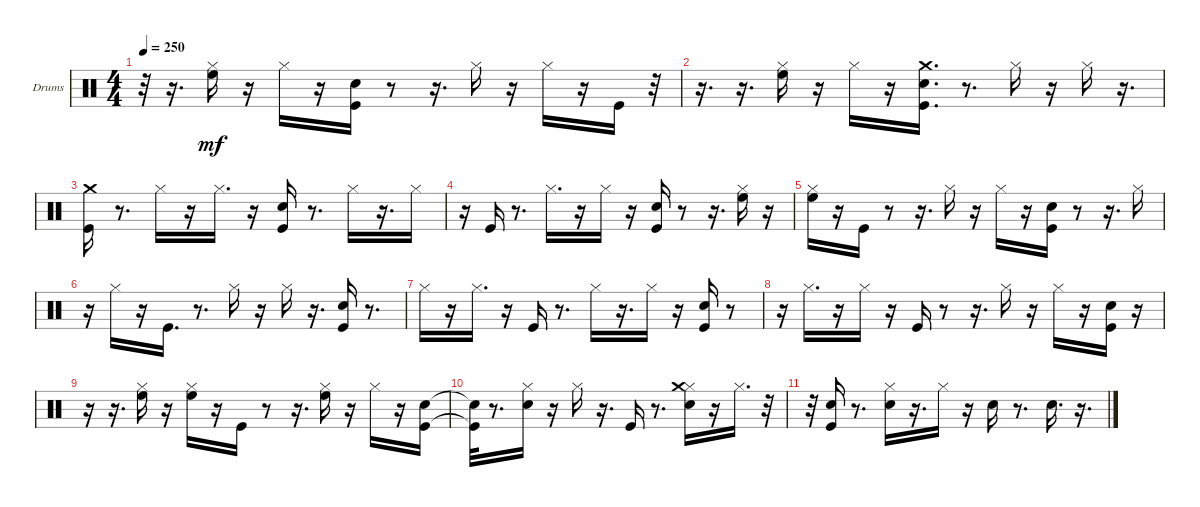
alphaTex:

\bracketExtendMode groupsimilarinstruments
\firstSystemTrackNameOrientation horizontal
\otherSystemsTrackNameOrientation horizontal
\track ("Drums" "Drums") {instrument percussion}
\staff {score}
\articulation defaults
\ts (4 4)
\tempo 250
\clef neutral
\ks c
r.32{dy mf} r.16{d} ("High Floor Tom (hit)" "Hi-Hat (closed)").16 r.16 "Hi-Hat (closed)".16 r.16 ("Kick (hit)" "Snare (hit) 2").16 r.8 r.16{d} "Hi-Hat (closed)".16 r.16 "Hi-Hat (closed)".16 r.16 "Kick (hit)".16 r.32 |
r.16{d} r.16{d} ("High Floor Tom (hit)" "Hi-Hat (closed)").16 r.16 "Hi-Hat (closed)".16 r.16 ("Kick (hit)" "Crash medium (hit)" "Snare (hit) 2").16{d} r.8{d} "Hi-Hat (closed)".16 r.16 "Hi-Hat (closed)".16 r.16{d} |
("Kick (hit)" "Crash medium (hit)").16 r.8{d} "Hi-Hat (closed)".16 r.16 "Hi-Hat (closed)".16{d} r.16 ("Kick (hit)" "Snare (hit) 2").16 r.8{d} "Hi-Hat (closed)".16 r.16{d} "Hi-Hat (closed)".16 |
r.16 "Kick (hit)".16 r.8{d} "Hi-Hat (closed)".16{d} r.16 "Hi-Hat (closed)".16 r.16 ("Kick (hit)" "Snare (hit) 2").16 r.8 r.16{d} ("High Floor Tom (hit)" "Hi-Hat (closed)").16 r.16 |
("High Floor Tom (hit)" "Hi-Hat (closed)").16 r.16 "Kick (hit)".16 r.8 r.16{d} "Hi-Hat (closed)".16 r.16 "Hi-Hat (closed)".16 r.16 ("Kick (hit)" "Snare (hit) 2").16 r.8 r.16{d} "Hi-Hat (closed)".16 |
r.16 "Hi-Hat (closed)".16 r.16 "Kick (hit)".16{d} r.8{d} "Hi-Hat (closed)".16 r.16 "Hi-Hat (closed)".16 r.16{d} ("Kick (hit)" "Snare (hit) 2").16 r.8{d} |
"Hi-Hat (closed)".16 r.16 "Hi-Hat (closed)".16{d} r.16 "Kick (hit)".16 r.8{d} "Hi-Hat (closed)".16 r.16{d} "Hi-Hat (closed)".16 r.16 ("Kick (hit)" "Snare (hit) 2").16 r.8 |
r.16 "Hi-Hat (closed)".16{d} r.16 "Hi-Hat (closed)".16 r.16 "Kick (hit)".16 r.8 r.16{d} "Hi-Hat (closed)".16 r.16 "Hi-Hat (closed)".16 r.16 ("Kick (hit)" "Snare (hit) 2").16 r.16 |
r.16 r.16{d} ("High Floor Tom (hit)" "Hi-Hat (closed)").16 r.16 ("High Floor Tom (hit)" "Hi-Hat (closed)").16 r.16 "Kick (hit)".16 r.8 r.16{d} ("High Floor Tom (hit)" "Hi-Hat (closed)").16 r.16 "Hi-Hat (closed)".16 r.16 ("Kick (hit)" "Snare (hit) 2").16 |
("Kick (hit)"{t} "Snare (hit) 2"{t}).32 r.8{d} ("Hi-Hat (closed)" "Snare (hit) 2").16 r.16 "Hi-Hat (closed)".16 r.16{d} "Kick (hit)".16 r.8{d} ("Hi-Hat (closed)" "Snare (hit) 2" "Crash medium (hit)").16 r.16 "Hi-Hat (closed)".16{d} r.32 |
r.32 ("Kick (hit)" "Snare (hit) 2").16 r.8{d} ("Hi-Hat (closed)" "Snare (hit) 2").16 r.16{d} "Hi-Hat (closed)".16 r.16 "Snare (hit) 2".16 r.8{d} "Snare (hit) 2".16{d} r.16{d}
